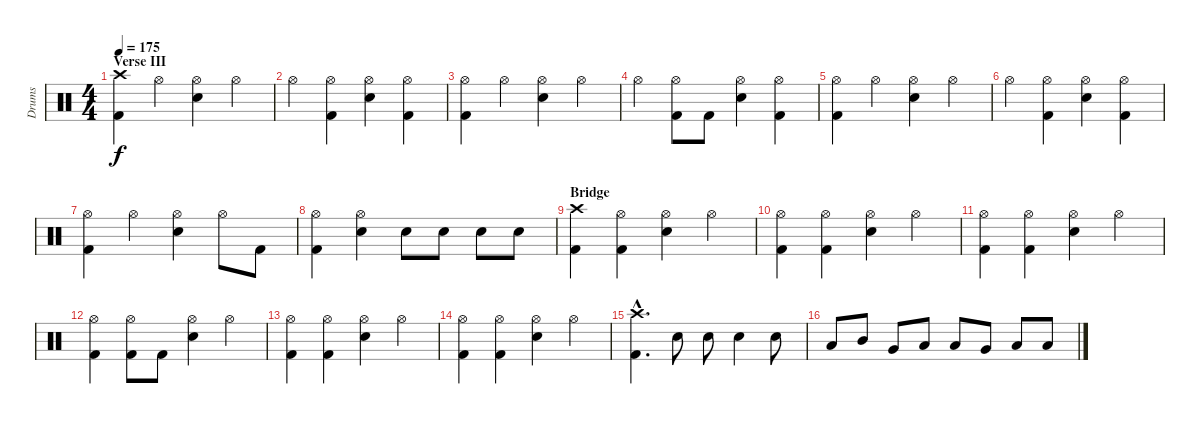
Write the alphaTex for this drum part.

\track ("Drums" "Drums") {instrument percussion}
\staff {score}
\articulation defaults
\ts (4 4)
\section ("" "Verse III")
\tempo 175
\clef neutral
\ks c
("Crash high (hit)" "Kick (hit) 2").4{dy f} "Hi-Hat (open)".4 ("Hi-Hat (open)" "Snare (hit) 2").4 "Hi-Hat (open)".4 |
"Hi-Hat (open)".4 ("Hi-Hat (open)" "Kick (hit) 2").4 ("Hi-Hat (open)" "Snare (hit) 2").4 ("Hi-Hat (open)" "Kick (hit) 2").4 |
("Hi-Hat (open)" "Kick (hit) 2").4 "Hi-Hat (open)".4 ("Hi-Hat (open)" "Snare (hit) 2").4 "Hi-Hat (open)".4 |
"Hi-Hat (open)".4 ("Hi-Hat (open)" "Kick (hit) 2").8 "Kick (hit) 2".8 ("Hi-Hat (open)" "Snare (hit) 2").4 ("Hi-Hat (open)" "Kick (hit) 2").4 |
("Hi-Hat (open)" "Kick (hit) 2").4 "Hi-Hat (open)".4 ("Hi-Hat (open)" "Snare (hit) 2").4 "Hi-Hat (open)".4 |
"Hi-Hat (open)".4 ("Hi-Hat (open)" "Kick (hit) 2").4 ("Hi-Hat (open)" "Snare (hit) 2").4 ("Hi-Hat (open)" "Kick (hit) 2").4 |
("Hi-Hat (open)" "Kick (hit) 2").4 "Hi-Hat (open)".4 ("Hi-Hat (open)" "Snare (hit) 2").4 "Hi-Hat (open)".8 "Kick (hit) 2".8 |
("Hi-Hat (open)" "Kick (hit) 2").4 ("Hi-Hat (open)" "Snare (hit) 2").4 "Snare (hit) 2".8 "Snare (hit) 2".8 "Snare (hit) 2".8 "Snare (hit) 2".8 |
\section ("" "Bridge")
("Crash high (hit)" "Kick (hit) 2").4 ("Hi-Hat (open)" "Kick (hit) 2").4 ("Hi-Hat (open)" "Snare (hit) 2").4 "Hi-Hat (open)".4 |
("Hi-Hat (open)" "Kick (hit) 2").4 ("Hi-Hat (open)" "Kick (hit) 2").4 ("Hi-Hat (open)" "Snare (hit) 2").4 "Hi-Hat (open)".4 |
("Hi-Hat (open)" "Kick (hit) 2").4 ("Hi-Hat (open)" "Kick (hit) 2").4 ("Hi-Hat (open)" "Snare (hit) 2").4 "Hi-Hat (open)".4 |
("Hi-Hat (open)" "Kick (hit) 2").4 ("Hi-Hat (open)" "Kick (hit) 2").8 "Kick (hit) 2".8 ("Hi-Hat (open)" "Snare (hit) 2").4 "Hi-Hat (open)".4 |
("Hi-Hat (open)" "Kick (hit) 2").4 ("Hi-Hat (open)" "Kick (hit) 2").4 ("Hi-Hat (open)" "Snare (hit) 2").4 "Hi-Hat (open)".4 |
("Hi-Hat (open)" "Kick (hit) 2").4 ("Hi-Hat (open)" "Kick (hit) 2").4 ("Hi-Hat (open)" "Snare (hit) 2").4 "Hi-Hat (open)".4 |
("Crash high (hit)"{hac} "Kick (hit) 2"{hac}).4{d} "Snare (hit) 2".8 "Snare (hit) 2".8 "Snare (hit) 2".4 "Snare (hit) 2".8 |
"Low Tom (hit)".8 "Mid Tom (hit)".8 "Very Low Tom (hit)".8 "Low Tom (hit)".8 "Low Floor Tom (hit)".8 "Very Low Tom (hit)".8 "Low Floor Tom (hit)".8 "Low Floor Tom (hit)".8
